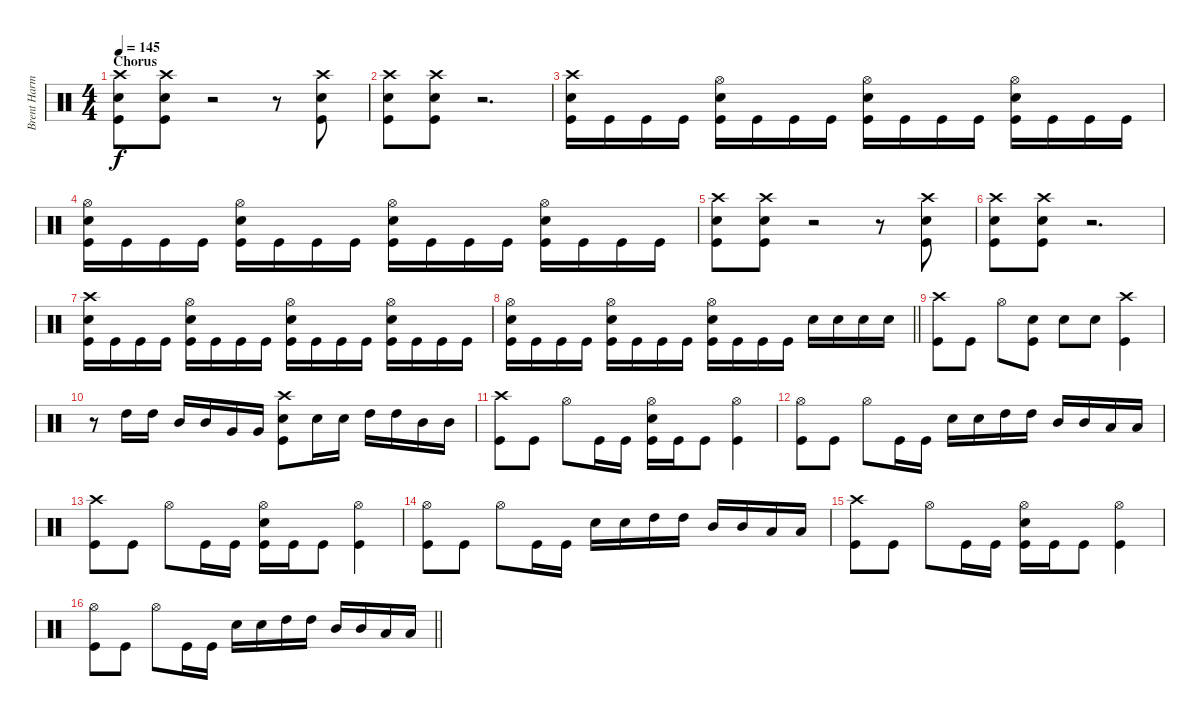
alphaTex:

\track ("Brent Harman" "Brent Harm") {instrument percussion}
\staff {score}
\articulation defaults
\ts (4 4)
\section ("" "Chorus")
\tempo 145
\clef neutral
\ks c
("Crash high (hit)" "Snare (hit) 2" "Kick (hit)").8{dy f} ("Crash high (hit)" "Snare (hit) 2" "Kick (hit)").8 r.2 r.8 ("Crash high (hit)" "Snare (hit) 2" "Kick (hit)").8 |
("Crash high (hit)" "Snare (hit) 2" "Kick (hit)").8 ("Crash high (hit)" "Snare (hit) 2" "Kick (hit)").8 r.2{d} |
("Crash high (hit)" "Snare (hit) 2" "Kick (hit)").16 "Kick (hit)".16 "Kick (hit)".16 "Kick (hit)".16 ("Hi-Hat (open)" "Snare (hit) 2" "Kick (hit)").16 "Kick (hit)".16 "Kick (hit)".16 "Kick (hit)".16 ("Hi-Hat (open)" "Snare (hit) 2" "Kick (hit)").16 "Kick (hit)".16 "Kick (hit)".16 "Kick (hit)".16 ("Hi-Hat (open)" "Snare (hit) 2" "Kick (hit)").16 "Kick (hit)".16 "Kick (hit)".16 "Kick (hit)".16 |
("Hi-Hat (open)" "Snare (hit) 2" "Kick (hit)").16 "Kick (hit)".16 "Kick (hit)".16 "Kick (hit)".16 ("Hi-Hat (open)" "Snare (hit) 2" "Kick (hit)").16 "Kick (hit)".16 "Kick (hit)".16 "Kick (hit)".16 ("Hi-Hat (open)" "Snare (hit) 2" "Kick (hit)").16 "Kick (hit)".16 "Kick (hit)".16 "Kick (hit)".16 ("Hi-Hat (open)" "Snare (hit) 2" "Kick (hit)").16 "Kick (hit)".16 "Kick (hit)".16 "Kick (hit)".16 |
("Crash high (hit)" "Snare (hit) 2" "Kick (hit)").8 ("Crash high (hit)" "Snare (hit) 2" "Kick (hit)").8 r.2 r.8 ("Crash high (hit)" "Snare (hit) 2" "Kick (hit)").8 |
("Crash high (hit)" "Snare (hit) 2" "Kick (hit)").8 ("Crash high (hit)" "Snare (hit) 2" "Kick (hit)").8 r.2{d} |
("Crash high (hit)" "Snare (hit) 2" "Kick (hit)").16 "Kick (hit)".16 "Kick (hit)".16 "Kick (hit)".16 ("Hi-Hat (open)" "Snare (hit) 2" "Kick (hit)").16 "Kick (hit)".16 "Kick (hit)".16 "Kick (hit)".16 ("Hi-Hat (open)" "Snare (hit) 2" "Kick (hit)").16 "Kick (hit)".16 "Kick (hit)".16 "Kick (hit)".16 ("Hi-Hat (open)" "Snare (hit) 2" "Kick (hit)").16 "Kick (hit)".16 "Kick (hit)".16 "Kick (hit)".16 |
\barLineRight lightlight
("Hi-Hat (open)" "Snare (hit) 2" "Kick (hit)").16 "Kick (hit)".16 "Kick (hit)".16 "Kick (hit)".16 ("Hi-Hat (open)" "Snare (hit) 2" "Kick (hit)").16 "Kick (hit)".16 "Kick (hit)".16 "Kick (hit)".16 ("Hi-Hat (open)" "Snare (hit) 2" "Kick (hit)").16 "Kick (hit)".16 "Kick (hit)".16 "Kick (hit)".16 "Snare (hit) 2".16 "Snare (hit) 2".16 "Snare (hit) 2".16 "Snare (hit) 2".16 |
("Crash high (hit)" "Kick (hit)").8 "Kick (hit)".8 "Hi-Hat (open)".8 ("Snare (hit) 2" "Kick (hit)").8 "Snare (hit) 2".8 "Snare (hit) 2".8 ("Crash high (hit)" "Kick (hit)").4 |
r.8 "High Tom (hit)".16 "High Tom (hit)".16 "Mid Tom (hit)".16 "Mid Tom (hit)".16 "Very Low Tom (hit)".16 "Very Low Tom (hit)".16 ("Crash high (hit)" "Snare (hit) 2" "Kick (hit)").8 "Snare (hit) 2".16 "Snare (hit) 2".16 "High Tom (hit)".16 "High Tom (hit)".16 "Mid Tom (hit)".16 "Mid Tom (hit)".16 |
("Crash high (hit)" "Kick (hit)").8 "Kick (hit)".8 "Hi-Hat (open)".8 "Kick (hit)".16 "Kick (hit)".16 ("Hi-Hat (open)" "Snare (hit) 2" "Kick (hit)").16 "Kick (hit)".16 "Kick (hit)".8 ("Hi-Hat (open)" "Kick (hit)").4 |
("Hi-Hat (open)" "Kick (hit)").8 "Kick (hit)".8 "Hi-Hat (open)".8 "Kick (hit)".16 "Kick (hit)".16 "Snare (hit) 2".16 "Snare (hit) 2".16 "High Tom (hit)".16 "High Tom (hit)".16 "Mid Tom (hit)".16 "Mid Tom (hit)".16 "Low Tom (hit)".16 "Low Tom (hit)".16 |
("Crash high (hit)" "Kick (hit)").8 "Kick (hit)".8 "Hi-Hat (open)".8 "Kick (hit)".16 "Kick (hit)".16 ("Hi-Hat (open)" "Snare (hit) 2" "Kick (hit)").16 "Kick (hit)".16 "Kick (hit)".8 ("Hi-Hat (open)" "Kick (hit)").4 |
("Hi-Hat (open)" "Kick (hit)").8 "Kick (hit)".8 "Hi-Hat (open)".8 "Kick (hit)".16 "Kick (hit)".16 "Snare (hit) 2".16 "Snare (hit) 2".16 "High Tom (hit)".16 "High Tom (hit)".16 "Mid Tom (hit)".16 "Mid Tom (hit)".16 "Low Tom (hit)".16 "Low Tom (hit)".16 |
("Crash high (hit)" "Kick (hit)").8 "Kick (hit)".8 "Hi-Hat (open)".8 "Kick (hit)".16 "Kick (hit)".16 ("Hi-Hat (open)" "Snare (hit) 2" "Kick (hit)").16 "Kick (hit)".16 "Kick (hit)".8 ("Hi-Hat (open)" "Kick (hit)").4 |
\barLineRight lightlight
("Hi-Hat (open)" "Kick (hit)").8 "Kick (hit)".8 "Hi-Hat (open)".8 "Kick (hit)".16 "Kick (hit)".16 "Snare (hit) 2".16 "Snare (hit) 2".16 "High Tom (hit)".16 "High Tom (hit)".16 "Mid Tom (hit)".16 "Mid Tom (hit)".16 "Low Tom (hit)".16 "Low Tom (hit)".16
